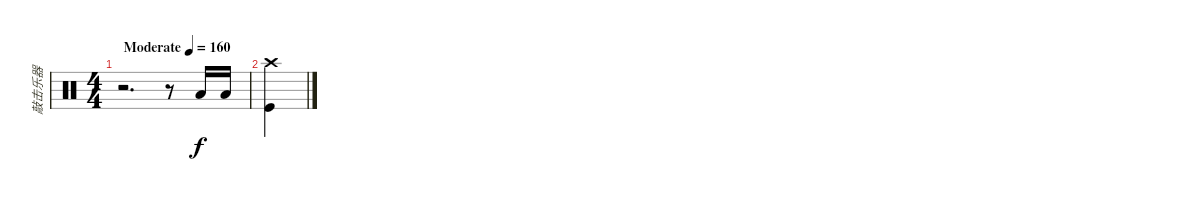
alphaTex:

\track ("敲击乐器" "敲击乐器") {instrument percussion}
\staff {score}
\articulation defaults
\ts (4 4)
\tempo (160 "Moderate")
\clef neutral
\ks c
r.2{d dy f} r.8 "Low Tom (hit)".16 "Low Tom (hit)".16 |
("Crash high (hit)" "Kick (hit)").4
